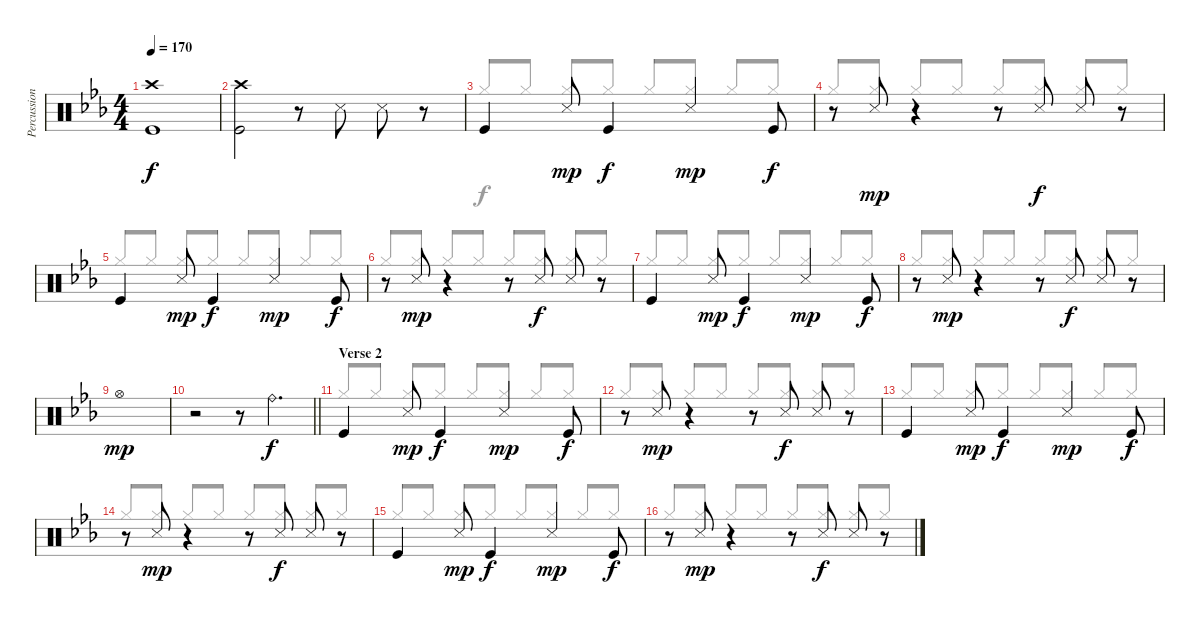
\track ("Percussion" "Percussion") {instrument percussion}
\staff {score}
\articulation defaults
\voice
\ts (4 4)
\tempo 170
\clef neutral
\ks eb
("Crash high (hit)" "Kick (hit)").1{dy f} |
("Crash high (hit)" "Kick (hit)").2 r.8 "Snare (side stick) 3".8 "Snare (side stick) 3".8 r.8 |
"Kick (hit)".4 "Snare (side stick) 3".8{dy mp} "Kick (hit)".4{dy f} "Snare (side stick) 3".4{dy mp} "Kick (hit)".8{dy f} |
r.8 "Snare (side stick) 3".8{dy mp} r.4 r.8 "Snare (side stick) 3".8{dy f} "Snare (side stick) 3".8 r.8 |
"Kick (hit)".4 "Snare (side stick) 3".8{dy mp} "Kick (hit)".4{dy f} "Snare (side stick) 3".4{dy mp} "Kick (hit)".8{dy f} |
r.8 "Snare (side stick) 3".8{dy mp} r.4 r.8 "Snare (side stick) 3".8{dy f} "Snare (side stick) 3".8 r.8 |
"Kick (hit)".4 "Snare (side stick) 3".8{dy mp} "Kick (hit)".4{dy f} "Snare (side stick) 3".4{dy mp} "Kick (hit)".8{dy f} |
r.8 "Snare (side stick) 3".8{dy mp} r.4 r.8 "Snare (side stick) 3".8{dy f} "Snare (side stick) 3".8 r.8 |
"Hi-Hat (open)".1{dy mp} |
\barLineRight lightlight
r.2 r.8 "Ride (bell)".4{d dy f} |
\section ("" "Verse 2")
"Kick (hit)".4 "Snare (side stick) 3".8{dy mp} "Kick (hit)".4{dy f} "Snare (side stick) 3".4{dy mp} "Kick (hit)".8{dy f} |
r.8 "Snare (side stick) 3".8{dy mp} r.4 r.8 "Snare (side stick) 3".8{dy f} "Snare (side stick) 3".8 r.8 |
"Kick (hit)".4 "Snare (side stick) 3".8{dy mp} "Kick (hit)".4{dy f} "Snare (side stick) 3".4{dy mp} "Kick (hit)".8{dy f} |
r.8 "Snare (side stick) 3".8{dy mp} r.4 r.8 "Snare (side stick) 3".8{dy f} "Snare (side stick) 3".8 r.8 |
"Kick (hit)".4 "Snare (side stick) 3".8{dy mp} "Kick (hit)".4{dy f} "Snare (side stick) 3".4{dy mp} "Kick (hit)".8{dy f} |
r.8 "Snare (side stick) 3".8{dy mp} r.4 r.8 "Snare (side stick) 3".8{dy f} "Snare (side stick) 3".8 r.8
\voice
\clef neutral
\ottava regular
\simile none
\ks eb
|
|
"Hi-Hat (closed)".8{beam Up} "Hi-Hat (closed)".8{beam Up} "Hi-Hat (closed)".8{beam Up} "Hi-Hat (closed)".8{beam Up} "Hi-Hat (closed)".8{beam Up} "Hi-Hat (closed)".8{beam Up} "Hi-Hat (closed)".8{beam Up} "Hi-Hat (closed)".8{beam Up} |
"Hi-Hat (closed)".8{beam Up} "Hi-Hat (closed)".8{beam Up} "Hi-Hat (closed)".8{beam Up} "Hi-Hat (closed)".8{beam Up} "Hi-Hat (closed)".8{beam Up} "Hi-Hat (closed)".8{beam Up} "Hi-Hat (closed)".8{beam Up} "Hi-Hat (closed)".8{beam Up} |
"Hi-Hat (closed)".8{beam Up} "Hi-Hat (closed)".8{beam Up} "Hi-Hat (closed)".8{beam Up} "Hi-Hat (closed)".8{beam Up} "Hi-Hat (closed)".8{beam Up} "Hi-Hat (closed)".8{beam Up} "Hi-Hat (closed)".8{beam Up} "Hi-Hat (closed)".8{beam Up} |
"Hi-Hat (closed)".8{beam Up} "Hi-Hat (closed)".8{beam Up} "Hi-Hat (closed)".8{beam Up} "Hi-Hat (closed)".8{beam Up} "Hi-Hat (closed)".8{beam Up} "Hi-Hat (closed)".8{beam Up} "Hi-Hat (closed)".8{beam Up} "Hi-Hat (closed)".8{beam Up} |
"Hi-Hat (closed)".8{beam Up} "Hi-Hat (closed)".8{beam Up} "Hi-Hat (closed)".8{beam Up} "Hi-Hat (closed)".8{beam Up} "Hi-Hat (closed)".8{beam Up} "Hi-Hat (closed)".8{beam Up} "Hi-Hat (closed)".8{beam Up} "Hi-Hat (closed)".8{beam Up} |
"Hi-Hat (closed)".8{beam Up} "Hi-Hat (closed)".8{beam Up} "Hi-Hat (closed)".8{beam Up} "Hi-Hat (closed)".8{beam Up} "Hi-Hat (closed)".8{beam Up} "Hi-Hat (closed)".8{beam Up} "Hi-Hat (closed)".8{beam Up} "Hi-Hat (closed)".8{beam Up} |
|
\barLineRight lightlight
|
"Hi-Hat (closed)".8{beam Up} "Hi-Hat (closed)".8{beam Up} "Hi-Hat (closed)".8{beam Up} "Hi-Hat (closed)".8{beam Up} "Hi-Hat (closed)".8{beam Up} "Hi-Hat (closed)".8{beam Up} "Hi-Hat (closed)".8{beam Up} "Hi-Hat (closed)".8{beam Up} |
"Hi-Hat (closed)".8{beam Up} "Hi-Hat (closed)".8{beam Up} "Hi-Hat (closed)".8{beam Up} "Hi-Hat (closed)".8{beam Up} "Hi-Hat (closed)".8{beam Up} "Hi-Hat (closed)".8{beam Up} "Hi-Hat (closed)".8{beam Up} "Hi-Hat (closed)".8{beam Up} |
"Hi-Hat (closed)".8{beam Up} "Hi-Hat (closed)".8{beam Up} "Hi-Hat (closed)".8{beam Up} "Hi-Hat (closed)".8{beam Up} "Hi-Hat (closed)".8{beam Up} "Hi-Hat (closed)".8{beam Up} "Hi-Hat (closed)".8{beam Up} "Hi-Hat (closed)".8{beam Up} |
"Hi-Hat (closed)".8{beam Up} "Hi-Hat (closed)".8{beam Up} "Hi-Hat (closed)".8{beam Up} "Hi-Hat (closed)".8{beam Up} "Hi-Hat (closed)".8{beam Up} "Hi-Hat (closed)".8{beam Up} "Hi-Hat (closed)".8{beam Up} "Hi-Hat (closed)".8{beam Up} |
"Hi-Hat (closed)".8{beam Up} "Hi-Hat (closed)".8{beam Up} "Hi-Hat (closed)".8{beam Up} "Hi-Hat (closed)".8{beam Up} "Hi-Hat (closed)".8{beam Up} "Hi-Hat (closed)".8{beam Up} "Hi-Hat (closed)".8{beam Up} "Hi-Hat (closed)".8{beam Up} |
"Hi-Hat (closed)".8{beam Up} "Hi-Hat (closed)".8{beam Up} "Hi-Hat (closed)".8{beam Up} "Hi-Hat (closed)".8{beam Up} "Hi-Hat (closed)".8{beam Up} "Hi-Hat (closed)".8{beam Up} "Hi-Hat (closed)".8{beam Up} "Hi-Hat (closed)".8{beam Up}
